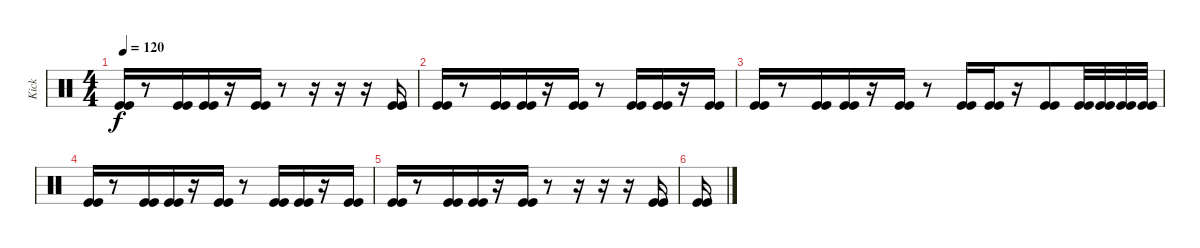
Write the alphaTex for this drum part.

\track ("Kick" "Kick") {instrument percussion}
\staff {score}
\articulation defaults
\ts (4 4)
\tempo 120
\clef neutral
\ks c
("Kick (hit)" "Kick (hit)").16{dy f beam merge} r.8{beam merge} ("Kick (hit)" "Kick (hit)").16{beam merge} ("Kick (hit)" "Kick (hit)").16 r.16{beam merge} ("Kick (hit)" "Kick (hit)").16 r.8 r.16 r.16{beam merge} r.16 ("Kick (hit)" "Kick (hit)").16 |
("Kick (hit)" "Kick (hit)").16{beam merge} r.8{beam merge} ("Kick (hit)" "Kick (hit)").16{beam merge} ("Kick (hit)" "Kick (hit)").16 r.16{beam merge} ("Kick (hit)" "Kick (hit)").16 r.8 ("Kick (hit)" "Kick (hit)").16 ("Kick (hit)" "Kick (hit)").16{beam merge} r.16 ("Kick (hit)" "Kick (hit)").16 |
("Kick (hit)" "Kick (hit)").16{beam merge} r.8{beam merge} ("Kick (hit)" "Kick (hit)").16{beam merge} ("Kick (hit)" "Kick (hit)").16 r.16{beam merge} ("Kick (hit)" "Kick (hit)").16 r.8 ("Kick (hit)" "Kick (hit)").16 ("Kick (hit)" "Kick (hit)").16{beam merge} r.16 ("Kick (hit)" "Kick (hit)").8 ("Kick (hit)" "Kick (hit)").32 ("Kick (hit)" "Kick (hit)").32 ("Kick (hit)" "Kick (hit)").32 ("Kick (hit)" "Kick (hit)").32 |
("Kick (hit)" "Kick (hit)").16{beam merge} r.8{beam merge} ("Kick (hit)" "Kick (hit)").16{beam merge} ("Kick (hit)" "Kick (hit)").16 r.16{beam merge} ("Kick (hit)" "Kick (hit)").16 r.8 ("Kick (hit)" "Kick (hit)").16 ("Kick (hit)" "Kick (hit)").16{beam merge} r.16 ("Kick (hit)" "Kick (hit)").16 |
("Kick (hit)" "Kick (hit)").16{beam merge} r.8{beam merge} ("Kick (hit)" "Kick (hit)").16{beam merge} ("Kick (hit)" "Kick (hit)").16 r.16{beam merge} ("Kick (hit)" "Kick (hit)").16 r.8 r.16 r.16{beam merge} r.16 ("Kick (hit)" "Kick (hit)").16 |
("Kick (hit)" "Kick (hit)").16
